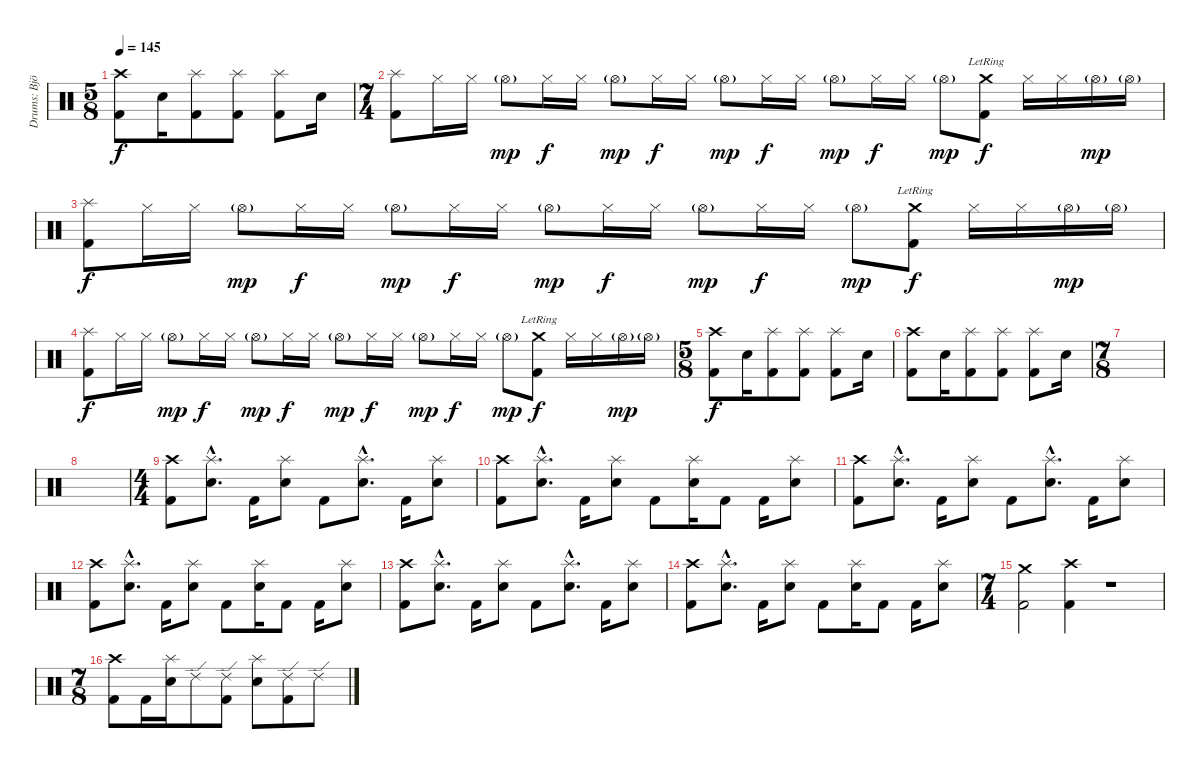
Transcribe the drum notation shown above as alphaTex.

\track ("Drums: Björn Fryklund" "Drums: Bjö") {instrument percussion}
\staff {score}
\articulation defaults
\ts (5 8)
\tempo 145
\clef neutral
\ks c
("Crash high (hit)" "Kick (hit) 2").8{dy f} "Snare (hit) 2".16 ("Splash (hit)" "Kick (hit) 2").8 ("Splash (hit)" "Kick (hit) 2").8 ("Splash (hit)" "Kick (hit) 2").8 "Snare (hit) 2".16 |
\ts (7 4)
("Splash (hit)" "Kick (hit) 2").8 "Hi-Hat (closed)".16 "Hi-Hat (closed)".16 "Hi-Hat (open)"{g}.8{dy mp} "Hi-Hat (closed)".16{dy f} "Hi-Hat (closed)".16 "Hi-Hat (open)"{g}.8{dy mp} "Hi-Hat (closed)".16{dy f} "Hi-Hat (closed)".16 "Hi-Hat (open)"{g}.8{dy mp} "Hi-Hat (closed)".16{dy f} "Hi-Hat (closed)".16 "Hi-Hat (open)"{g}.8{dy mp} "Hi-Hat (closed)".16{dy f} "Hi-Hat (closed)".16 "Hi-Hat (open)"{g}.8{dy mp} ("Crash medium (hit)"{lr} "Kick (hit) 2").8{dy f} "Hi-Hat (closed)".16 "Hi-Hat (closed)".16 "Hi-Hat (open)"{g}.16{dy mp} "Hi-Hat (open)"{g}.16 |
("Splash (hit)" "Kick (hit) 2").8{dy f} "Hi-Hat (closed)".16 "Hi-Hat (closed)".16 "Hi-Hat (open)"{g}.8{dy mp} "Hi-Hat (closed)".16{dy f} "Hi-Hat (closed)".16 "Hi-Hat (open)"{g}.8{dy mp} "Hi-Hat (closed)".16{dy f} "Hi-Hat (closed)".16 "Hi-Hat (open)"{g}.8{dy mp} "Hi-Hat (closed)".16{dy f} "Hi-Hat (closed)".16 "Hi-Hat (open)"{g}.8{dy mp} "Hi-Hat (closed)".16{dy f} "Hi-Hat (closed)".16 "Hi-Hat (open)"{g}.8{dy mp} ("Crash medium (hit)"{lr} "Kick (hit) 2").8{dy f} "Hi-Hat (closed)".16 "Hi-Hat (closed)".16 "Hi-Hat (open)"{g}.16{dy mp} "Hi-Hat (open)"{g}.16 |
("Splash (hit)" "Kick (hit) 2").8{dy f} "Hi-Hat (closed)".16 "Hi-Hat (closed)".16 "Hi-Hat (open)"{g}.8{dy mp} "Hi-Hat (closed)".16{dy f} "Hi-Hat (closed)".16 "Hi-Hat (open)"{g}.8{dy mp} "Hi-Hat (closed)".16{dy f} "Hi-Hat (closed)".16 "Hi-Hat (open)"{g}.8{dy mp} "Hi-Hat (closed)".16{dy f} "Hi-Hat (closed)".16 "Hi-Hat (open)"{g}.8{dy mp} "Hi-Hat (closed)".16{dy f} "Hi-Hat (closed)".16 "Hi-Hat (open)"{g}.8{dy mp} ("Crash medium (hit)"{lr} "Kick (hit) 2").8{dy f} "Hi-Hat (closed)".16 "Hi-Hat (closed)".16 "Hi-Hat (open)"{g}.16{dy mp} "Hi-Hat (open)"{g}.16 |
\ts (5 8)
("Crash high (hit)" "Kick (hit) 2").8{dy f} "Snare (hit) 2".16 ("Splash (hit)" "Kick (hit) 2").8 ("Splash (hit)" "Kick (hit) 2").8 ("Splash (hit)" "Kick (hit) 2").8 "Snare (hit) 2".16 |
("Crash high (hit)" "Kick (hit) 2").8 "Snare (hit) 2".16 ("Splash (hit)" "Kick (hit) 2").8 ("Splash (hit)" "Kick (hit) 2").8 ("Splash (hit)" "Kick (hit) 2").8 "Snare (hit) 2".16 |
\ts (7 8)
|
|
\ts (4 4)
("Crash high (hit)" "Kick (hit) 2").8 ("Splash (hit)"{hac} "Snare (hit) 2"{hac}).8{d} "Kick (hit) 2".16 ("Splash (hit)" "Snare (hit) 2").8 "Kick (hit) 2".8 ("Splash (hit)"{hac} "Snare (hit) 2"{hac}).8{d} "Kick (hit) 2".16 ("Splash (hit)" "Snare (hit) 2").8 |
("Crash high (hit)" "Kick (hit) 2").8 ("Splash (hit)"{hac} "Snare (hit) 2"{hac}).8{d} "Kick (hit) 2".16 ("Splash (hit)" "Snare (hit) 2").8 "Kick (hit) 2".8 ("Splash (hit)" "Snare (hit) 2").16 "Kick (hit) 2".8 "Kick (hit) 2".16 ("Splash (hit)" "Snare (hit) 2").8 |
("Crash high (hit)" "Kick (hit) 2").8 ("Splash (hit)"{hac} "Snare (hit) 2"{hac}).8{d} "Kick (hit) 2".16 ("Splash (hit)" "Snare (hit) 2").8 "Kick (hit) 2".8 ("Splash (hit)"{hac} "Snare (hit) 2"{hac}).8{d} "Kick (hit) 2".16 ("Splash (hit)" "Snare (hit) 2").8 |
("Crash high (hit)" "Kick (hit) 2").8 ("Splash (hit)"{hac} "Snare (hit) 2"{hac}).8{d} "Kick (hit) 2".16 ("Splash (hit)" "Snare (hit) 2").8 "Kick (hit) 2".8 ("Splash (hit)" "Snare (hit) 2").16 "Kick (hit) 2".8 "Kick (hit) 2".16 ("Splash (hit)" "Snare (hit) 2").8 |
("Crash high (hit)" "Kick (hit) 2").8 ("Splash (hit)"{hac} "Snare (hit) 2"{hac}).8{d} "Kick (hit) 2".16 ("Splash (hit)" "Snare (hit) 2").8 "Kick (hit) 2".8 ("Splash (hit)"{hac} "Snare (hit) 2"{hac}).8{d} "Kick (hit) 2".16 ("Splash (hit)" "Snare (hit) 2").8 |
("Crash high (hit)" "Kick (hit) 2").8 ("Splash (hit)"{hac} "Snare (hit) 2"{hac}).8{d} "Kick (hit) 2".16 ("Splash (hit)" "Snare (hit) 2").8 "Kick (hit) 2".8 ("Splash (hit)" "Snare (hit) 2").16 "Kick (hit) 2".8 "Kick (hit) 2".16 ("Splash (hit)" "Snare (hit) 2").8 |
\ts (7 4)
("Crash medium (hit)" "Kick (hit) 2").2 ("Crash high (hit)" "Kick (hit) 2").4 r.1 |
\ts (7 8)
("Crash high (hit)" "Kick (hit) 2").8 "Kick (hit) 2".16 ("Splash (hit)" "Snare (hit) 2").16 "Ride (edge) 2".8 ("Ride (edge) 2" "Kick (hit) 2").8 ("Splash (hit)" "Snare (hit) 2").8 ("Ride (edge) 2" "Kick (hit) 2").8 "Ride (edge) 2".8
